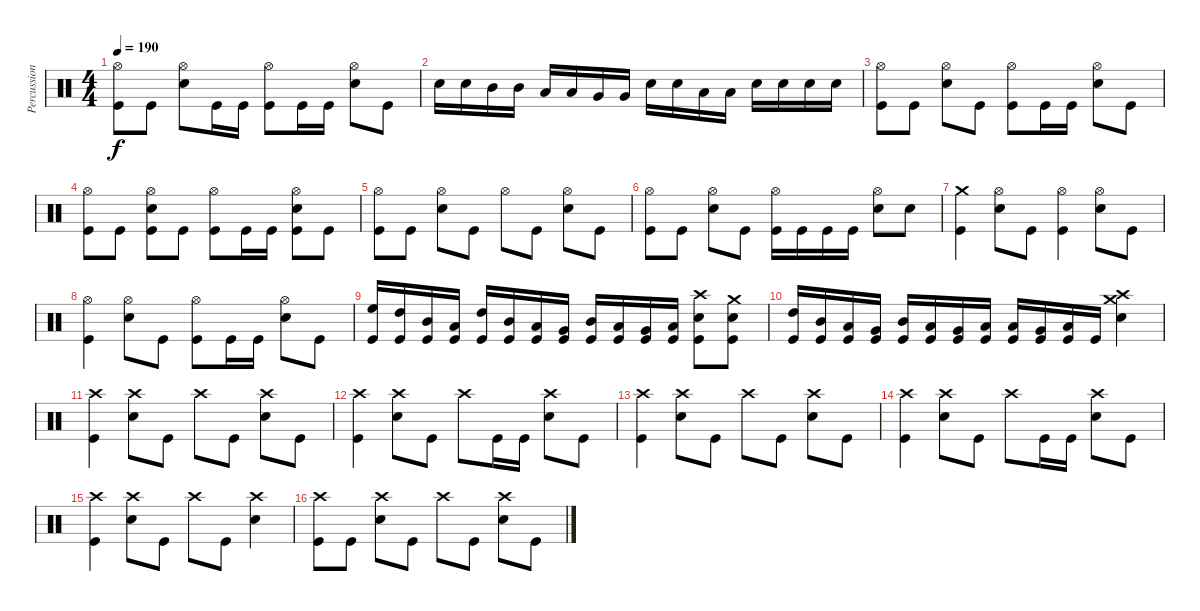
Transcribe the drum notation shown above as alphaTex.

\track ("Percussions" "Percussion") {instrument percussion}
\staff {score}
\articulation defaults
\ts (4 4)
\tempo 190
\clef neutral
\ks c
("Hi-Hat (open)" "Kick (hit)").8{dy f} "Kick (hit)".8 ("Hi-Hat (open)" "Snare (hit) 2").8 "Kick (hit)".16 "Kick (hit)".16 ("Hi-Hat (open)" "Kick (hit)").8 "Kick (hit)".16 "Kick (hit)".16 ("Hi-Hat (open)" "Snare (hit) 2").8 "Kick (hit)".8 |
"Snare (hit) 2".16 "Snare (hit) 2".16 "Mid Tom (hit)".16 "Mid Tom (hit)".16 "Low Tom (hit)".16 "Low Tom (hit)".16 "Very Low Tom (hit)".16 "Very Low Tom (hit)".16 "Snare (hit) 2".16 "Snare (hit) 2".16 "Low Tom (hit)".16 "Low Tom (hit)".16 "Snare (hit) 2".16 "Snare (hit) 2".16 "Snare (hit) 2".16 "Snare (hit) 2".16 |
("Hi-Hat (open)" "Kick (hit)").8 "Kick (hit)".8 ("Hi-Hat (open)" "Snare (hit) 2").8 "Kick (hit)".8 ("Hi-Hat (open)" "Kick (hit)").8 "Kick (hit)".16 "Kick (hit)".16 ("Hi-Hat (open)" "Snare (hit) 2").8 "Kick (hit)".8 |
("Hi-Hat (open)" "Kick (hit)").8 "Kick (hit)".8 ("Hi-Hat (open)" "Snare (hit) 2" "Kick (hit)").8 "Kick (hit)".8 ("Hi-Hat (open)" "Kick (hit)").8 "Kick (hit)".16 "Kick (hit)".16 ("Hi-Hat (open)" "Snare (hit) 2" "Kick (hit)").8 "Kick (hit)".8 |
("Hi-Hat (open)" "Kick (hit)").8 "Kick (hit)".8 ("Hi-Hat (open)" "Snare (hit) 2").8 "Kick (hit)".8 "Hi-Hat (open)".8 "Kick (hit)".8 ("Hi-Hat (open)" "Snare (hit) 2").8 "Kick (hit)".8 |
("Hi-Hat (open)" "Kick (hit)").8 "Kick (hit)".8 ("Hi-Hat (open)" "Snare (hit) 2").8 "Kick (hit)".8 ("Hi-Hat (open)" "Kick (hit)").16 "Kick (hit)".16 "Kick (hit)".16 "Kick (hit)".16 ("Hi-Hat (open)" "Snare (hit) 2").8 "Snare (hit) 2".8 |
("Crash medium (hit)" "Kick (hit)").4 ("Hi-Hat (open)" "Snare (hit) 2").8 "Kick (hit)".8 ("Hi-Hat (open)" "Kick (hit)").4 ("Hi-Hat (open)" "Snare (hit) 2").8 "Kick (hit)".8 |
("Hi-Hat (open)" "Kick (hit)").4 ("Hi-Hat (open)" "Snare (hit) 2").8 "Kick (hit)".8 ("Hi-Hat (open)" "Kick (hit)").8 "Kick (hit)".16 "Kick (hit)".16 ("Hi-Hat (open)" "Snare (hit) 2").8 "Kick (hit)".8 |
("High Floor Tom (hit)" "Kick (hit)").16 ("High Tom (hit)" "Kick (hit)").16 ("Mid Tom (hit)" "Kick (hit)").16 ("Low Tom (hit)" "Kick (hit)").16 ("High Tom (hit)" "Kick (hit)").16 ("Mid Tom (hit)" "Kick (hit)").16 ("Low Tom (hit)" "Kick (hit)").16 ("Very Low Tom (hit)" "Kick (hit)").16 ("Mid Tom (hit)" "Kick (hit)").16 ("Low Tom (hit)" "Kick (hit)").16 ("Very Low Tom (hit)" "Kick (hit)").16 ("Low Floor Tom (hit)" "Kick (hit)").16 ("Crash high (hit)" "Snare (hit) 2" "Kick (hit)").8 ("Crash medium (hit)" "Snare (hit) 2" "Kick (hit)").8 |
("High Tom (hit)" "Kick (hit)").16 ("Mid Tom (hit)" "Kick (hit)").16 ("Low Tom (hit)" "Kick (hit)").16 ("Very Low Tom (hit)" "Kick (hit)").16 ("Mid Tom (hit)" "Kick (hit)").16 ("Low Tom (hit)" "Kick (hit)").16 ("Very Low Tom (hit)" "Kick (hit)").16 ("Low Floor Tom (hit)" "Kick (hit)").16 ("Low Tom (hit)" "Kick (hit)").16 ("Very Low Tom (hit)" "Kick (hit)").16 ("Low Floor Tom (hit)" "Kick (hit)").16 "Kick (hit)".16 ("Crash medium (hit)" "Crash high (hit)" "Snare (hit) 2").4 |
("Crash high (hit)" "Kick (hit)").4 ("Crash high (hit)" "Snare (hit) 2").8 "Kick (hit)".8 "Crash high (hit)".8 "Kick (hit)".8 ("Crash high (hit)" "Snare (hit) 2").8 "Kick (hit)".8 |
("Crash high (hit)" "Kick (hit)").4 ("Crash high (hit)" "Snare (hit) 2").8 "Kick (hit)".8 "Crash high (hit)".8 "Kick (hit)".16 "Kick (hit)".16 ("Crash high (hit)" "Snare (hit) 2").8 "Kick (hit)".8 |
("Crash high (hit)" "Kick (hit)").4 ("Crash high (hit)" "Snare (hit) 2").8 "Kick (hit)".8 "Crash high (hit)".8 "Kick (hit)".8 ("Crash high (hit)" "Snare (hit) 2").8 "Kick (hit)".8 |
("Crash high (hit)" "Kick (hit)").4 ("Crash high (hit)" "Snare (hit) 2").8 "Kick (hit)".8 "Crash high (hit)".8 "Kick (hit)".16 "Kick (hit)".16 ("Crash high (hit)" "Snare (hit) 2").8 "Kick (hit)".8 |
("Crash high (hit)" "Kick (hit)").4 ("Crash high (hit)" "Snare (hit) 2").8 "Kick (hit)".8 "Crash high (hit)".8 "Kick (hit)".8 ("Crash high (hit)" "Snare (hit) 2").4 |
("Crash high (hit)" "Kick (hit)").8 "Kick (hit)".8 ("Crash high (hit)" "Snare (hit) 2").8 "Kick (hit)".8 "Crash high (hit)".8 "Kick (hit)".8 ("Crash high (hit)" "Snare (hit) 2").8 "Kick (hit)".8
